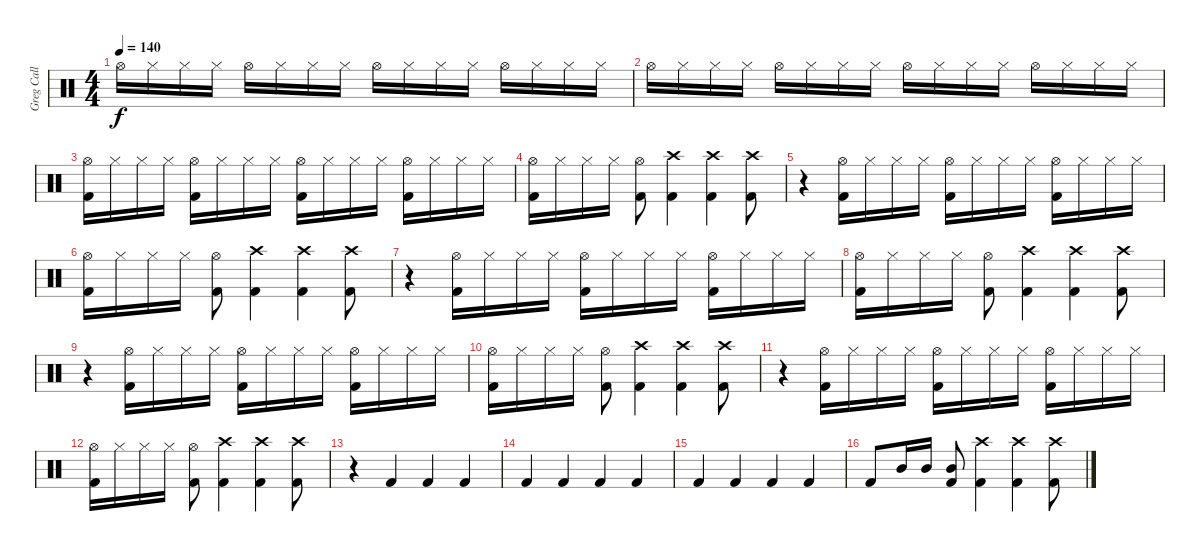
\track ("Greg Call (Drums)" "Greg Call ") {instrument percussion}
\staff {score}
\articulation defaults
\ts (4 4)
\tempo 140
\clef neutral
\ks c "Hi-Hat (open)".16{dy f} "Hi-Hat (closed)".16 "Hi-Hat (closed)".16 "Hi-Hat (closed)".16 "Hi-Hat (open)".16 "Hi-Hat (closed)".16 "Hi-Hat (closed)".16 "Hi-Hat (closed)".16 "Hi-Hat (open)".16 "Hi-Hat (closed)".16 "Hi-Hat (closed)".16 "Hi-Hat (closed)".16 "Hi-Hat (open)".16 "Hi-Hat (closed)".16 "Hi-Hat (closed)".16 "Hi-Hat (closed)".16
|
"Hi-Hat (open)".16 "Hi-Hat (closed)".16 "Hi-Hat (closed)".16 "Hi-Hat (closed)".16 "Hi-Hat (open)".16 "Hi-Hat (closed)".16 "Hi-Hat (closed)".16 "Hi-Hat (closed)".16 "Hi-Hat (open)".16 "Hi-Hat (closed)".16 "Hi-Hat (closed)".16 "Hi-Hat (closed)".16 "Hi-Hat (open)".16 "Hi-Hat (closed)".16 "Hi-Hat (closed)".16 "Hi-Hat (closed)".16 |
("Hi-Hat (open)" "Kick (hit) 2").16 "Hi-Hat (closed)".16 "Hi-Hat (closed)".16 "Hi-Hat (closed)".16 ("Hi-Hat (open)" "Kick (hit) 2").16 "Hi-Hat (closed)".16 "Hi-Hat (closed)".16 "Hi-Hat (closed)".16 ("Hi-Hat (open)" "Kick (hit) 2").16 "Hi-Hat (closed)".16 "Hi-Hat (closed)".16 "Hi-Hat (closed)".16 ("Hi-Hat (open)" "Kick (hit) 2").16 "Hi-Hat (closed)".16 "Hi-Hat (closed)".16 "Hi-Hat (closed)".16 |
("Hi-Hat (open)" "Kick (hit) 2").16 "Hi-Hat (closed)".16 "Hi-Hat (closed)".16 "Hi-Hat (closed)".16 ("Hi-Hat (open)" "Kick (hit) 2").8 ("Crash high (hit)" "Kick (hit) 2").4 ("Crash high (hit)" "Kick (hit) 2").4 ("Crash high (hit)" "Kick (hit) 2").8 |
r.4 ("Hi-Hat (open)" "Kick (hit) 2").16 "Hi-Hat (closed)".16 "Hi-Hat (closed)".16 "Hi-Hat (closed)".16 ("Hi-Hat (open)" "Kick (hit) 2").16 "Hi-Hat (closed)".16 "Hi-Hat (closed)".16 "Hi-Hat (closed)".16 ("Hi-Hat (open)" "Kick (hit) 2").16 "Hi-Hat (closed)".16 "Hi-Hat (closed)".16 "Hi-Hat (closed)".16 |
("Hi-Hat (open)" "Kick (hit) 2").16 "Hi-Hat (closed)".16 "Hi-Hat (closed)".16 "Hi-Hat (closed)".16 ("Hi-Hat (open)" "Kick (hit) 2").8 ("Crash high (hit)" "Kick (hit) 2").4 ("Crash high (hit)" "Kick (hit) 2").4 ("Crash high (hit)" "Kick (hit) 2").8 |
r.4 ("Hi-Hat (open)" "Kick (hit) 2").16 "Hi-Hat (closed)".16 "Hi-Hat (closed)".16 "Hi-Hat (closed)".16 ("Hi-Hat (open)" "Kick (hit) 2").16 "Hi-Hat (closed)".16 "Hi-Hat (closed)".16 "Hi-Hat (closed)".16 ("Hi-Hat (open)" "Kick (hit) 2").16 "Hi-Hat (closed)".16 "Hi-Hat (closed)".16 "Hi-Hat (closed)".16 |
("Hi-Hat (open)" "Kick (hit) 2").16 "Hi-Hat (closed)".16 "Hi-Hat (closed)".16 "Hi-Hat (closed)".16 ("Hi-Hat (open)" "Kick (hit) 2").8 ("Crash high (hit)" "Kick (hit) 2").4 ("Crash high (hit)" "Kick (hit) 2").4 ("Crash high (hit)" "Kick (hit) 2").8 |
r.4 ("Hi-Hat (open)" "Kick (hit) 2").16 "Hi-Hat (closed)".16 "Hi-Hat (closed)".16 "Hi-Hat (closed)".16 ("Hi-Hat (open)" "Kick (hit) 2").16 "Hi-Hat (closed)".16 "Hi-Hat (closed)".16 "Hi-Hat (closed)".16 ("Hi-Hat (open)" "Kick (hit) 2").16 "Hi-Hat (closed)".16 "Hi-Hat (closed)".16 "Hi-Hat (closed)".16 |
("Hi-Hat (open)" "Kick (hit) 2").16 "Hi-Hat (closed)".16 "Hi-Hat (closed)".16 "Hi-Hat (closed)".16 ("Hi-Hat (open)" "Kick (hit) 2").8 ("Crash high (hit)" "Kick (hit) 2").4 ("Crash high (hit)" "Kick (hit) 2").4 ("Crash high (hit)" "Kick (hit) 2").8 |
r.4 ("Hi-Hat (open)" "Kick (hit) 2").16 "Hi-Hat (closed)".16 "Hi-Hat (closed)".16 "Hi-Hat (closed)".16 ("Hi-Hat (open)" "Kick (hit) 2").16 "Hi-Hat (closed)".16 "Hi-Hat (closed)".16 "Hi-Hat (closed)".16 ("Hi-Hat (open)" "Kick (hit) 2").16 "Hi-Hat (closed)".16 "Hi-Hat (closed)".16 "Hi-Hat (closed)".16 |
("Hi-Hat (open)" "Kick (hit) 2").16 "Hi-Hat (closed)".16 "Hi-Hat (closed)".16 "Hi-Hat (closed)".16 ("Hi-Hat (open)" "Kick (hit) 2").8 ("Crash high (hit)" "Kick (hit) 2").4 ("Crash high (hit)" "Kick (hit) 2").4 ("Crash high (hit)" "Kick (hit) 2").8 |
r.4 "Kick (hit) 2".4 "Kick (hit) 2".4 "Kick (hit) 2".4 |
"Kick (hit) 2".4 "Kick (hit) 2".4 "Kick (hit) 2".4 "Kick (hit) 2".4 |
"Kick (hit) 2".4 "Kick (hit) 2".4 "Kick (hit) 2".4 "Kick (hit) 2".4 |
"Kick (hit) 2".8 "Mid Tom (hit)".16 "Mid Tom (hit)".16 ("Mid Tom (hit)" "Kick (hit) 2").8 ("Crash high (hit)" "Kick (hit) 2").4 ("Crash high (hit)" "Kick (hit) 2").4 ("Crash high (hit)" "Kick (hit) 2").8
